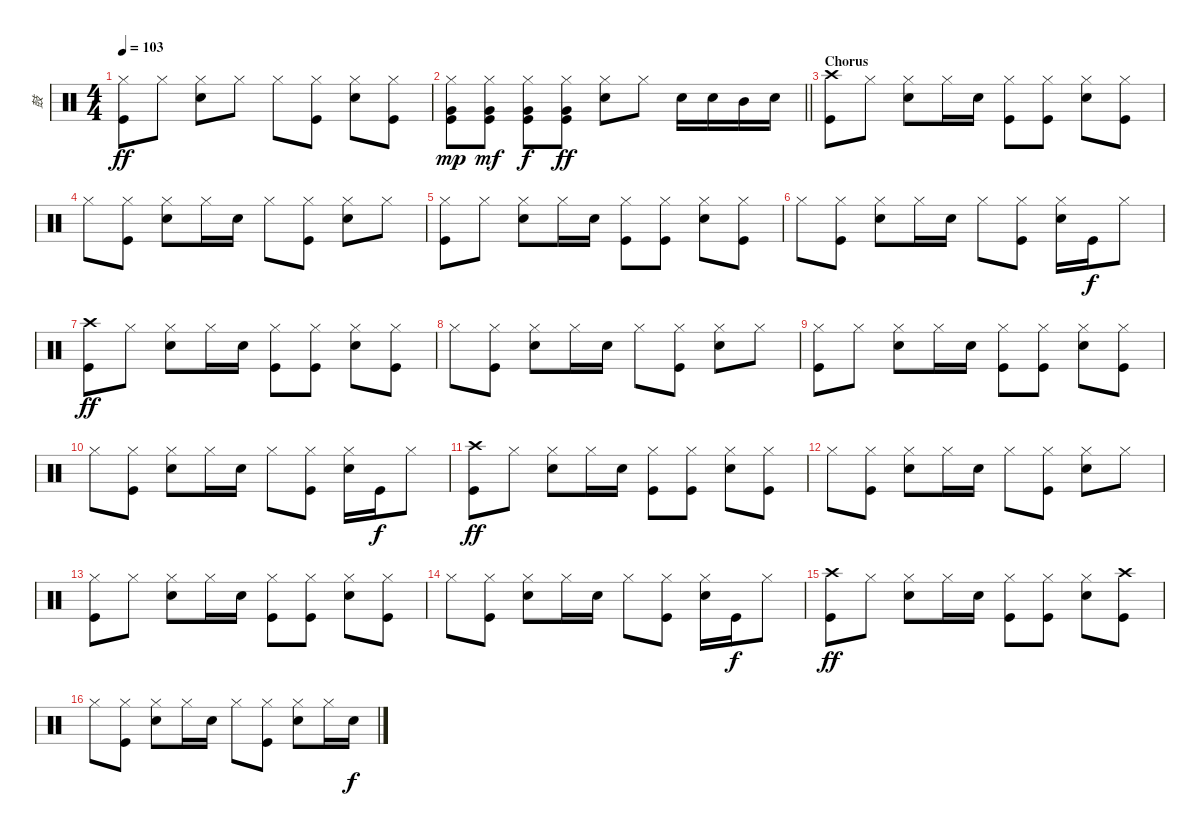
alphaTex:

\track ("鼓" "鼓") {instrument percussion}
\staff {score}
\articulation defaults
\ts (4 4)
\tempo 103
\clef neutral
\ks c
("Hi-Hat (closed)" "Kick (hit)").8{dy ff} "Hi-Hat (closed)".8 ("Hi-Hat (closed)" "Snare (hit) 2").8 "Hi-Hat (closed)".8 "Hi-Hat (closed)".8 ("Hi-Hat (closed)" "Kick (hit)").8 ("Hi-Hat (closed)" "Snare (hit) 2").8 ("Hi-Hat (closed)" "Kick (hit)").8 |
\barLineRight lightlight
("Very Low Tom (hit)" "Kick (hit)" "Hi-Hat (closed)").8{dy mp} ("Very Low Tom (hit)" "Kick (hit)" "Hi-Hat (closed)").8{dy mf} ("Very Low Tom (hit)" "Kick (hit)" "Hi-Hat (closed)").8{dy f} ("Very Low Tom (hit)" "Kick (hit)" "Hi-Hat (closed)").8{dy ff} ("Hi-Hat (closed)" "Snare (hit) 2").8 "Hi-Hat (closed)".8 "Snare (hit) 2".16 "Snare (hit) 2".16 "Mid Tom (hit)".16 "Snare (hit) 2".16 |
\section ("" "Chorus")
("Crash high (hit)" "Kick (hit)").8 "Hi-Hat (closed)".8 ("Hi-Hat (closed)" "Snare (hit) 2").8 "Hi-Hat (closed)".16 "Snare (hit) 2".16 ("Hi-Hat (closed)" "Kick (hit)").8 ("Hi-Hat (closed)" "Kick (hit)").8 ("Hi-Hat (closed)" "Snare (hit) 2").8 ("Hi-Hat (closed)" "Kick (hit)").8 |
"Hi-Hat (closed)".8 ("Hi-Hat (closed)" "Kick (hit)").8 ("Hi-Hat (closed)" "Snare (hit) 2").8 "Hi-Hat (closed)".16 "Snare (hit) 2".16 "Hi-Hat (closed)".8 ("Hi-Hat (closed)" "Kick (hit)").8 ("Hi-Hat (closed)" "Snare (hit) 2").8 "Hi-Hat (closed)".8 |
("Hi-Hat (closed)" "Kick (hit)").8 "Hi-Hat (closed)".8 ("Hi-Hat (closed)" "Snare (hit) 2").8 "Hi-Hat (closed)".16 "Snare (hit) 2".16 ("Hi-Hat (closed)" "Kick (hit)").8 ("Hi-Hat (closed)" "Kick (hit)").8 ("Hi-Hat (closed)" "Snare (hit) 2").8 ("Hi-Hat (closed)" "Kick (hit)").8 |
"Hi-Hat (closed)".8 ("Hi-Hat (closed)" "Kick (hit)").8 ("Hi-Hat (closed)" "Snare (hit) 2").8 "Hi-Hat (closed)".16 "Snare (hit) 2".16 "Hi-Hat (closed)".8 ("Hi-Hat (closed)" "Kick (hit)").8 ("Hi-Hat (closed)" "Snare (hit) 2").16 "Kick (hit)".16{dy f} "Hi-Hat (closed)".8 |
("Crash high (hit)" "Kick (hit)").8{dy ff} "Hi-Hat (closed)".8 ("Hi-Hat (closed)" "Snare (hit) 2").8 "Hi-Hat (closed)".16 "Snare (hit) 2".16 ("Hi-Hat (closed)" "Kick (hit)").8 ("Hi-Hat (closed)" "Kick (hit)").8 ("Hi-Hat (closed)" "Snare (hit) 2").8 ("Hi-Hat (closed)" "Kick (hit)").8 |
"Hi-Hat (closed)".8 ("Hi-Hat (closed)" "Kick (hit)").8 ("Hi-Hat (closed)" "Snare (hit) 2").8 "Hi-Hat (closed)".16 "Snare (hit) 2".16 "Hi-Hat (closed)".8 ("Hi-Hat (closed)" "Kick (hit)").8 ("Hi-Hat (closed)" "Snare (hit) 2").8 "Hi-Hat (closed)".8 |
("Hi-Hat (closed)" "Kick (hit)").8 "Hi-Hat (closed)".8 ("Hi-Hat (closed)" "Snare (hit) 2").8 "Hi-Hat (closed)".16 "Snare (hit) 2".16 ("Hi-Hat (closed)" "Kick (hit)").8 ("Hi-Hat (closed)" "Kick (hit)").8 ("Hi-Hat (closed)" "Snare (hit) 2").8 ("Hi-Hat (closed)" "Kick (hit)").8 |
"Hi-Hat (closed)".8 ("Hi-Hat (closed)" "Kick (hit)").8 ("Hi-Hat (closed)" "Snare (hit) 2").8 "Hi-Hat (closed)".16 "Snare (hit) 2".16 "Hi-Hat (closed)".8 ("Hi-Hat (closed)" "Kick (hit)").8 ("Hi-Hat (closed)" "Snare (hit) 2").16 "Kick (hit)".16{dy f} "Hi-Hat (closed)".8 |
("Crash high (hit)" "Kick (hit)").8{dy ff} "Hi-Hat (closed)".8 ("Hi-Hat (closed)" "Snare (hit) 2").8 "Hi-Hat (closed)".16 "Snare (hit) 2".16 ("Hi-Hat (closed)" "Kick (hit)").8 ("Hi-Hat (closed)" "Kick (hit)").8 ("Hi-Hat (closed)" "Snare (hit) 2").8 ("Hi-Hat (closed)" "Kick (hit)").8 |
"Hi-Hat (closed)".8 ("Hi-Hat (closed)" "Kick (hit)").8 ("Hi-Hat (closed)" "Snare (hit) 2").8 "Hi-Hat (closed)".16 "Snare (hit) 2".16 "Hi-Hat (closed)".8 ("Hi-Hat (closed)" "Kick (hit)").8 ("Hi-Hat (closed)" "Snare (hit) 2").8 "Hi-Hat (closed)".8 |
("Hi-Hat (closed)" "Kick (hit)").8 "Hi-Hat (closed)".8 ("Hi-Hat (closed)" "Snare (hit) 2").8 "Hi-Hat (closed)".16 "Snare (hit) 2".16 ("Hi-Hat (closed)" "Kick (hit)").8 ("Hi-Hat (closed)" "Kick (hit)").8 ("Hi-Hat (closed)" "Snare (hit) 2").8 ("Hi-Hat (closed)" "Kick (hit)").8 |
"Hi-Hat (closed)".8 ("Hi-Hat (closed)" "Kick (hit)").8 ("Hi-Hat (closed)" "Snare (hit) 2").8 "Hi-Hat (closed)".16 "Snare (hit) 2".16 "Hi-Hat (closed)".8 ("Hi-Hat (closed)" "Kick (hit)").8 ("Hi-Hat (closed)" "Snare (hit) 2").16 "Kick (hit)".16{dy f} "Hi-Hat (closed)".8 |
("Crash high (hit)" "Kick (hit)").8{dy ff} "Hi-Hat (closed)".8 ("Hi-Hat (closed)" "Snare (hit) 2").8 "Hi-Hat (closed)".16 "Snare (hit) 2".16 ("Hi-Hat (closed)" "Kick (hit)").8 ("Hi-Hat (closed)" "Kick (hit)").8 ("Hi-Hat (closed)" "Snare (hit) 2").8 ("Crash high (hit)" "Kick (hit)").8 |
"Hi-Hat (closed)".8 ("Hi-Hat (closed)" "Kick (hit)").8 ("Hi-Hat (closed)" "Snare (hit) 2").8 "Hi-Hat (closed)".16 "Snare (hit) 2".16 "Hi-Hat (closed)".8 ("Hi-Hat (closed)" "Kick (hit)").8 ("Hi-Hat (closed)" "Snare (hit) 2").8 "Hi-Hat (closed)".16 "Snare (hit) 2".16{dy f}
